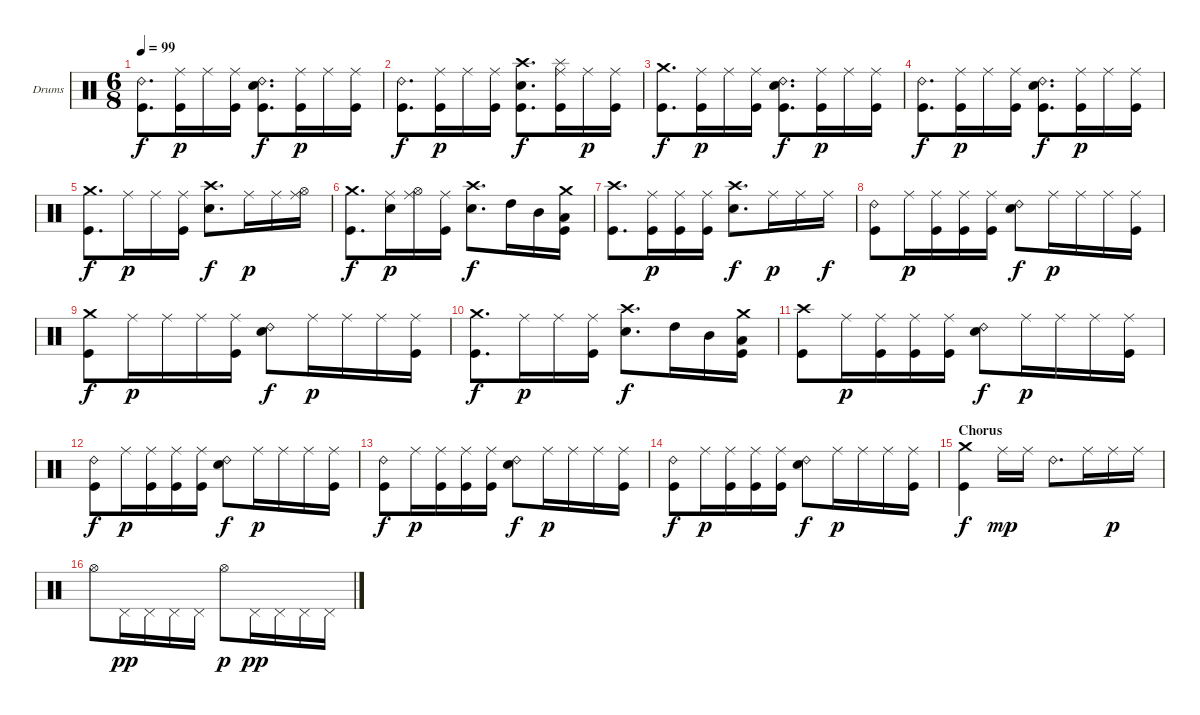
\defaultSystemsLayout 4
\bracketExtendMode nobrackets
\firstSystemTrackNameOrientation horizontal
\otherSystemsTrackNameOrientation horizontal
\track ("Dave Abbruzzese" "Drums") {solo instrument percussion}
\staff {score}
\articulation defaults
\ts (6 8)
\tempo 99
\clef neutral
\ks c
("Ride (bell) 2" "Kick (hit)").8{d dy f} ("Ride (middle)" "Kick (hit)").16{dy p} "Ride (middle)".16 ("Ride (middle)" "Kick (hit)").16 ("Ride (bell) 2" "Snare (hit) 2" "Kick (hit)").8{d dy f} ("Ride (middle)" "Kick (hit)").16{dy p} "Ride (middle)".16 ("Ride (middle)" "Kick (hit)").16 |
("Ride (bell) 2" "Kick (hit)").8{d dy f} ("Ride (middle)" "Kick (hit)").16{dy p} "Ride (middle)".16 ("Ride (middle)" "Kick (hit)").16 ("Crash high (hit)" "Snare (hit) 2" "Kick (hit)").8{d dy f} ("Splash (hit)" "Ride (middle)" "Kick (hit)").16 "Ride (middle)".16{dy p} ("Ride (middle)" "Kick (hit)").16 |
("Crash medium (hit)" "Kick (hit)").8{d dy f} ("Ride (middle)" "Kick (hit)").16{dy p} "Ride (middle)".16 ("Ride (middle)" "Kick (hit)").16 ("Ride (bell) 2" "Snare (hit) 2" "Kick (hit)").8{d dy f} ("Ride (middle)" "Kick (hit)").16{dy p} "Ride (middle)".16 ("Ride (middle)" "Kick (hit)").16 |
("Ride (bell) 2" "Kick (hit)").8{d dy f} ("Ride (middle)" "Kick (hit)").16{dy p} "Ride (middle)".16 ("Ride (middle)" "Kick (hit)").16 ("Ride (bell) 2" "Snare (hit) 2" "Kick (hit)").8{d dy f} ("Ride (middle)" "Kick (hit)").16{dy p} "Ride (middle)".16 ("Ride (middle)" "Kick (hit)").16 |
("Crash medium (hit)" "Kick (hit)").8{d dy f} "Ride (middle)".16{dy p} "Ride (middle)".16 ("Ride (middle)" "Kick (hit)").16 ("Crash high (hit)" "Snare (hit) 2").8{d dy f} "Ride (middle)".16{dy p} "Ride (middle)".16 ("Ride (middle)" "Hi-Hat (open)").16 |
("Crash medium (hit)" "Kick (hit)").8{d dy f} ("Ride (middle)" "Snare (hit) 2").16{dy p} ("Ride (middle)" "Hi-Hat (open)").16 ("Ride (middle)" "Kick (hit)").16 ("Crash high (hit)" "Snare (hit) 2").8{d dy f} "High Tom (hit)".16 "Mid Tom (hit)".16 ("Crash medium (hit)" "Low Tom (hit)" "Kick (hit)").16 |
("Crash high (hit)" "Kick (hit)").8{d} ("Ride (middle)" "Kick (hit)").16{dy p} ("Ride (middle)" "Kick (hit)").16 ("Ride (middle)" "Kick (hit)").16 ("Crash high (hit)" "Snare (hit) 2").8{d dy f} "Ride (middle)".16{dy p} "Ride (middle)".16 "Ride (middle)".16{dy f} |
("Ride (bell) 2" "Kick (hit)").8 "Ride (middle)".16{dy p} ("Ride (middle)" "Kick (hit)").16 ("Ride (middle)" "Kick (hit)").16 ("Ride (middle)" "Kick (hit)").16 ("Ride (bell) 2" "Snare (hit) 2").8{dy f} "Ride (middle)".16{dy p} "Ride (middle)".16 "Ride (middle)".16 ("Ride (middle)" "Kick (hit)").16 |
("Crash medium (hit)" "Kick (hit)").8{dy f} "Ride (middle)".16{dy p} "Ride (middle)".16 "Ride (middle)".16 ("Ride (middle)" "Kick (hit)").16 ("Ride (bell) 2" "Snare (hit) 2").8{dy f} "Ride (middle)".16{dy p} "Ride (middle)".16 "Ride (middle)".16 ("Ride (middle)" "Kick (hit)").16 |
("Crash medium (hit)" "Kick (hit)").8{d dy f} "Ride (middle)".16{dy p} "Ride (middle)".16 ("Ride (middle)" "Kick (hit)").16 ("Crash high (hit)" "Snare (hit) 2").8{d dy f} "High Tom (hit)".16 "Mid Tom (hit)".16 ("Crash medium (hit)" "Low Tom (hit)" "Kick (hit)").16 |
("Crash high (hit)" "Kick (hit)").8 "Ride (middle)".16{dy p} ("Ride (middle)" "Kick (hit)").16 ("Ride (middle)" "Kick (hit)").16 ("Ride (middle)" "Kick (hit)").16 ("Ride (bell) 2" "Snare (hit) 2").8{dy f} "Ride (middle)".16{dy p} "Ride (middle)".16 "Ride (middle)".16 ("Ride (middle)" "Kick (hit)").16 |
("Ride (bell) 2" "Kick (hit)").8{dy f} "Ride (middle)".16{dy p} ("Ride (middle)" "Kick (hit)").16 ("Ride (middle)" "Kick (hit)").16 ("Ride (middle)" "Kick (hit)").16 ("Ride (bell) 2" "Snare (hit) 2").8{dy f} "Ride (middle)".16{dy p} "Ride (middle)".16 "Ride (middle)".16 ("Ride (middle)" "Kick (hit)").16 |
("Ride (bell) 2" "Kick (hit)").8{dy f} "Ride (middle)".16{dy p} ("Ride (middle)" "Kick (hit)").16 ("Ride (middle)" "Kick (hit)").16 ("Ride (middle)" "Kick (hit)").16 ("Ride (bell) 2" "Snare (hit) 2").8{dy f} "Ride (middle)".16{dy p} "Ride (middle)".16 "Ride (middle)".16 ("Ride (middle)" "Kick (hit)").16 |
("Ride (bell) 2" "Kick (hit)").8{dy f} "Ride (middle)".16{dy p} ("Ride (middle)" "Kick (hit)").16 ("Ride (middle)" "Kick (hit)").16 ("Ride (middle)" "Kick (hit)").16 ("Ride (bell) 2" "Snare (hit) 2").8{dy f} "Ride (middle)".16{dy p} "Ride (middle)".16 "Ride (middle)".16 ("Ride (middle)" "Kick (hit)").16 |
\section ("" "Chorus")
("Crash medium (hit)" "Kick (hit)").4{dy f} "Ride (middle)".16{dy mp} "Ride (middle)".16 "Ride (bell) 2".8{d} "Ride (middle)".16 "Ride (middle)".16{dy p} "Ride (middle)".16 |
"Hi-Hat (open)".8 "Pedal Hi-Hat (hit)".16{dy pp} "Pedal Hi-Hat (hit)".16 "Pedal Hi-Hat (hit)".16 "Pedal Hi-Hat (hit)".16 "Hi-Hat (open)".8{dy p} "Pedal Hi-Hat (hit)".16{dy pp} "Pedal Hi-Hat (hit)".16 "Pedal Hi-Hat (hit)".16 "Pedal Hi-Hat (hit)".16
